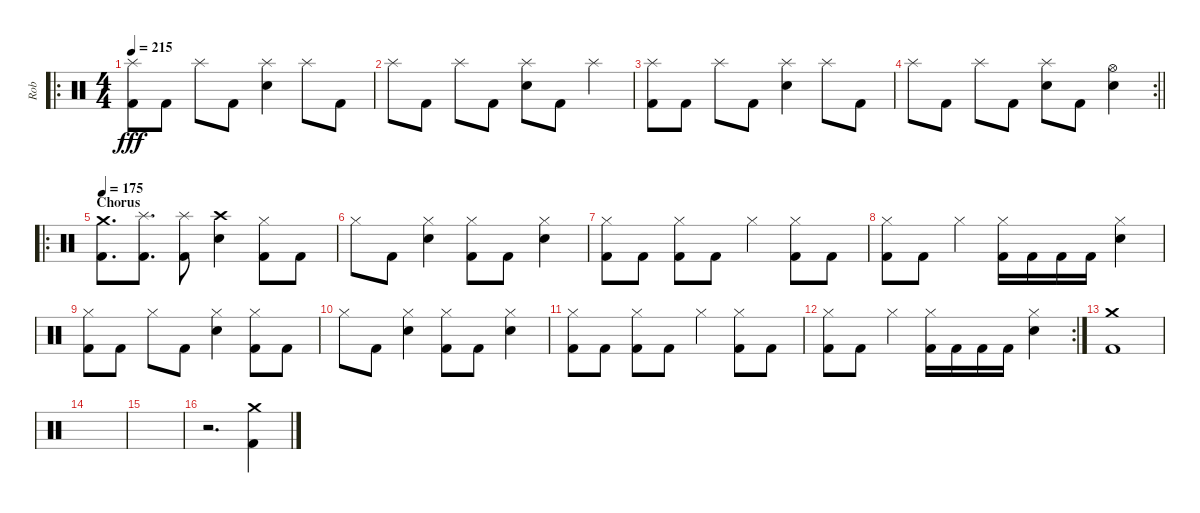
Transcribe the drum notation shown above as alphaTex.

\track ("Rob" "Rob") {instrument percussion}
\staff {score}
\articulation defaults
\ro
\ts (4 4)
\tempo 215
\clef neutral
\ks c
("Splash (hit)" "Kick (hit) 2").8{dy fff} "Kick (hit) 2".8 "Splash (hit)".8 "Kick (hit) 2".8 ("Splash (hit)" "Electric Snare (hit)").4 "Splash (hit)".8 "Kick (hit) 2".8 |
"Splash (hit)".8 "Kick (hit) 2".8 "Splash (hit)".8 "Kick (hit) 2".8 ("Splash (hit)" "Electric Snare (hit)").8 "Kick (hit) 2".8 "Splash (hit)".4 |
("Splash (hit)" "Kick (hit) 2").8 "Kick (hit) 2".8 "Splash (hit)".8 "Kick (hit) 2".8 ("Splash (hit)" "Electric Snare (hit)").4 "Splash (hit)".8 "Kick (hit) 2".8 |
\rc 2
\barLineRight lightlight "Splash (hit)".8 "Kick (hit) 2".8 "Splash (hit)".8 "Kick (hit) 2".8
("Splash (hit)" "Electric Snare (hit)").8 "Kick (hit) 2".8 ("Hi-Hat (open)" "Electric Snare (hit)").4 |
\ro
\section ("" "Chorus")
\tempo 175
("Crash medium (hit)" "Kick (hit) 2").8{d} ("Splash (hit)" "Kick (hit) 2").8{d} ("Splash (hit)" "Kick (hit) 2").8 ("Crash high (hit)" "Electric Snare (hit)").4 ("Hi-Hat (closed)" "Kick (hit) 2").8 "Kick (hit) 2".8 |
"Hi-Hat (closed)".8 "Kick (hit) 2".8 ("Hi-Hat (closed)" "Electric Snare (hit)").4 ("Hi-Hat (closed)" "Kick (hit) 2").8 "Kick (hit) 2".8 ("Hi-Hat (closed)" "Electric Snare (hit)").4 |
("Hi-Hat (closed)" "Kick (hit) 2").8 "Kick (hit) 2".8 ("Hi-Hat (closed)" "Kick (hit) 2").8 "Kick (hit) 2".8 "Hi-Hat (closed)".4 ("Hi-Hat (closed)" "Kick (hit) 2").8 "Kick (hit) 2".8 |
("Hi-Hat (closed)" "Kick (hit) 2").8 "Kick (hit) 2".8 "Hi-Hat (closed)".4 ("Hi-Hat (closed)" "Kick (hit) 2").16 "Kick (hit) 2".16 "Kick (hit) 2".16 "Kick (hit) 2".16 ("Hi-Hat (closed)" "Electric Snare (hit)").4 |
("Hi-Hat (closed)" "Kick (hit) 2").8 "Kick (hit) 2".8 "Hi-Hat (closed)".8 "Kick (hit) 2".8 ("Hi-Hat (closed)" "Electric Snare (hit)").4 ("Hi-Hat (closed)" "Kick (hit) 2").8 "Kick (hit) 2".8 |
"Hi-Hat (closed)".8 "Kick (hit) 2".8 ("Hi-Hat (closed)" "Electric Snare (hit)").4 ("Hi-Hat (closed)" "Kick (hit) 2").8 "Kick (hit) 2".8 ("Hi-Hat (closed)" "Electric Snare (hit)").4 |
("Hi-Hat (closed)" "Kick (hit) 2").8 "Kick (hit) 2".8 ("Hi-Hat (closed)" "Kick (hit) 2").8 "Kick (hit) 2".8 "Hi-Hat (closed)".4 ("Hi-Hat (closed)" "Kick (hit) 2").8 "Kick (hit) 2".8 |
\rc 2
("Hi-Hat (closed)" "Kick (hit) 2").8 "Kick (hit) 2".8 "Hi-Hat (closed)".4 ("Hi-Hat (closed)" "Kick (hit) 2").16 "Kick (hit) 2".16 "Kick (hit) 2".16 "Kick (hit) 2".16 ("Hi-Hat (closed)" "Electric Snare (hit)").4 |
("Crash medium (hit)" "Kick (hit) 2").1 |
|
|
r.2{d} ("Crash medium (hit)" "Kick (hit) 2").4
